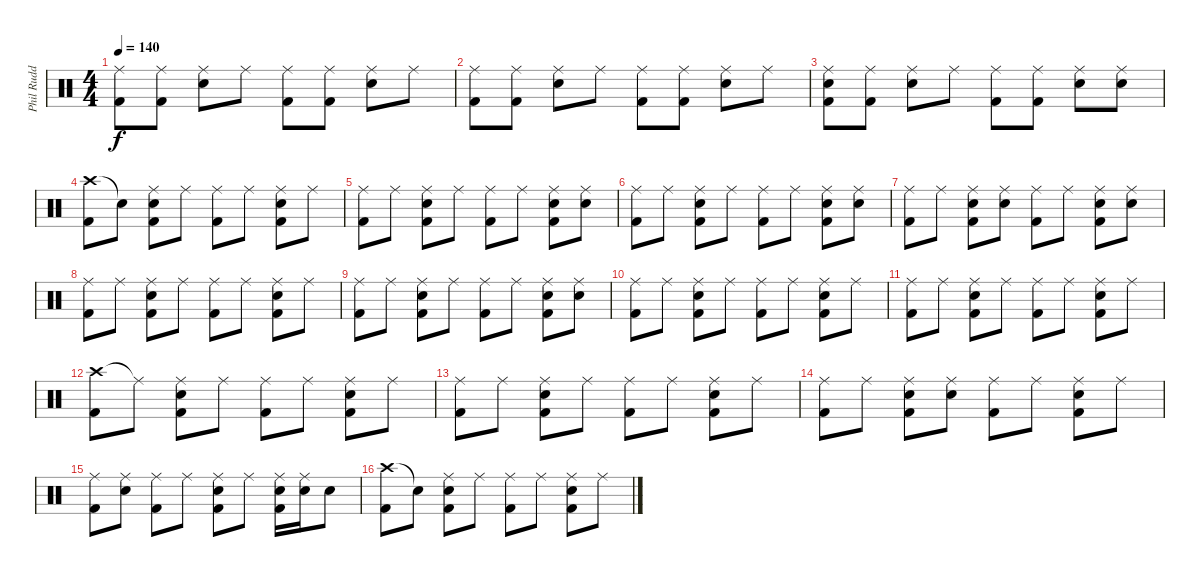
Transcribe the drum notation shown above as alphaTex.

\track ("Phil Rudd" "Phil Rudd") {instrument percussion}
\staff {score}
\articulation defaults
\ts (4 4)
\tempo 140
\clef neutral
\ks c
("Ride (middle)" "Kick (hit) 2").8{dy f} ("Ride (middle)" "Kick (hit) 2").8 ("Ride (middle)" "Electric Snare (hit)").8 "Ride (middle)".8 ("Ride (middle)" "Kick (hit) 2").8 ("Ride (middle)" "Kick (hit) 2").8 ("Ride (middle)" "Electric Snare (hit)").8 "Ride (middle)".8 |
("Ride (middle)" "Kick (hit) 2").8 ("Ride (middle)" "Kick (hit) 2").8 ("Ride (middle)" "Electric Snare (hit)").8 "Ride (middle)".8 ("Ride (middle)" "Kick (hit) 2").8 ("Ride (middle)" "Kick (hit) 2").8 ("Ride (middle)" "Electric Snare (hit)").8 "Ride (middle)".8 |
("Ride (middle)" "Electric Snare (hit)" "Kick (hit) 2").8 ("Ride (middle)" "Kick (hit) 2").8 ("Ride (middle)" "Electric Snare (hit)").8 "Ride (middle)".8 ("Ride (middle)" "Kick (hit) 2").8 ("Ride (middle)" "Kick (hit) 2").8 ("Ride (middle)" "Electric Snare (hit)").8 ("Ride (middle)" "Electric Snare (hit)").8 |
("Crash high (hit)" "Kick (hit) 2").8 "Snare (hit)"{t}.8 ("Ride (middle)" "Electric Snare (hit)" "Kick (hit) 2").8 "Ride (middle)".8 ("Ride (middle)" "Kick (hit) 2").8 "Ride (middle)".8 ("Ride (middle)" "Electric Snare (hit)" "Kick (hit) 2").8 "Ride (middle)".8 |
("Ride (middle)" "Kick (hit) 2").8 "Ride (middle)".8 ("Ride (middle)" "Electric Snare (hit)" "Kick (hit) 2").8 "Ride (middle)".8 ("Ride (middle)" "Kick (hit) 2").8 "Ride (middle)".8 ("Ride (middle)" "Electric Snare (hit)" "Kick (hit) 2").8 ("Ride (middle)" "Electric Snare (hit)").8 |
("Ride (middle)" "Kick (hit) 2").8 "Ride (middle)".8 ("Ride (middle)" "Electric Snare (hit)" "Kick (hit) 2").8 "Ride (middle)".8 ("Ride (middle)" "Kick (hit) 2").8 "Ride (middle)".8 ("Ride (middle)" "Electric Snare (hit)" "Kick (hit) 2").8 ("Ride (middle)" "Electric Snare (hit)").8 |
("Ride (middle)" "Kick (hit) 2").8 "Ride (middle)".8 ("Ride (middle)" "Electric Snare (hit)" "Kick (hit) 2").8 ("Ride (middle)" "Electric Snare (hit)").8 ("Ride (middle)" "Kick (hit) 2").8 "Ride (middle)".8 ("Ride (middle)" "Electric Snare (hit)" "Kick (hit) 2").8 ("Ride (middle)" "Electric Snare (hit)").8 |
("Ride (middle)" "Kick (hit) 2").8 "Ride (middle)".8 ("Ride (middle)" "Electric Snare (hit)" "Kick (hit) 2").8 "Ride (middle)".8 ("Ride (middle)" "Kick (hit) 2").8 "Ride (middle)".8 ("Ride (middle)" "Electric Snare (hit)" "Kick (hit) 2").8 "Ride (middle)".8 |
("Ride (middle)" "Kick (hit) 2").8 "Ride (middle)".8 ("Ride (middle)" "Electric Snare (hit)" "Kick (hit) 2").8 "Ride (middle)".8 ("Ride (middle)" "Kick (hit) 2").8 "Ride (middle)".8 ("Ride (middle)" "Electric Snare (hit)" "Kick (hit) 2").8 ("Ride (middle)" "Electric Snare (hit)").8 |
("Ride (middle)" "Kick (hit) 2").8 "Ride (middle)".8 ("Ride (middle)" "Electric Snare (hit)" "Kick (hit) 2").8 "Ride (middle)".8 ("Ride (middle)" "Kick (hit) 2").8 "Ride (middle)".8 ("Ride (middle)" "Electric Snare (hit)" "Kick (hit) 2").8 "Ride (middle)".8 |
("Ride (middle)" "Kick (hit) 2").8 "Ride (middle)".8 ("Ride (middle)" "Electric Snare (hit)" "Kick (hit) 2").8 "Ride (middle)".8 ("Ride (middle)" "Kick (hit) 2").8 "Ride (middle)".8 ("Ride (middle)" "Electric Snare (hit)" "Kick (hit) 2").8 "Ride (middle)".8 |
("Crash high (hit)" "Kick (hit) 2").8 "Ride (middle)"{t}.8 ("Ride (middle)" "Electric Snare (hit)" "Kick (hit) 2").8 "Ride (middle)".8 ("Ride (middle)" "Kick (hit) 2").8 "Ride (middle)".8 ("Ride (middle)" "Electric Snare (hit)" "Kick (hit) 2").8 "Ride (middle)".8 |
("Ride (middle)" "Kick (hit) 2").8 "Ride (middle)".8 ("Ride (middle)" "Electric Snare (hit)" "Kick (hit) 2").8 "Ride (middle)".8 ("Ride (middle)" "Kick (hit) 2").8 "Ride (middle)".8 ("Ride (middle)" "Electric Snare (hit)" "Kick (hit) 2").8 "Ride (middle)".8 |
("Ride (middle)" "Kick (hit) 2").8 "Ride (middle)".8 ("Ride (middle)" "Electric Snare (hit)" "Kick (hit) 2").8 ("Ride (middle)" "Electric Snare (hit)").8 ("Ride (middle)" "Kick (hit) 2").8 "Ride (middle)".8 ("Ride (middle)" "Electric Snare (hit)" "Kick (hit) 2").8 "Ride (middle)".8 |
("Ride (middle)" "Kick (hit) 2").8 ("Ride (middle)" "Electric Snare (hit)").8 ("Ride (middle)" "Kick (hit) 2").8 "Ride (middle)".8 ("Ride (middle)" "Electric Snare (hit)" "Kick (hit) 2").8 "Ride (middle)".8 ("Ride (middle)" "Electric Snare (hit)" "Kick (hit) 2").16 ("Ride (middle)" "Electric Snare (hit)").16 "Electric Snare (hit)".8 |
("Crash high (hit)" "Kick (hit) 2").8 "Snare (hit)"{t}.8 ("Ride (middle)" "Electric Snare (hit)" "Kick (hit) 2").8 "Ride (middle)".8 ("Ride (middle)" "Kick (hit) 2").8 "Ride (middle)".8 ("Ride (middle)" "Electric Snare (hit)" "Kick (hit) 2").8 "Ride (middle)".8
